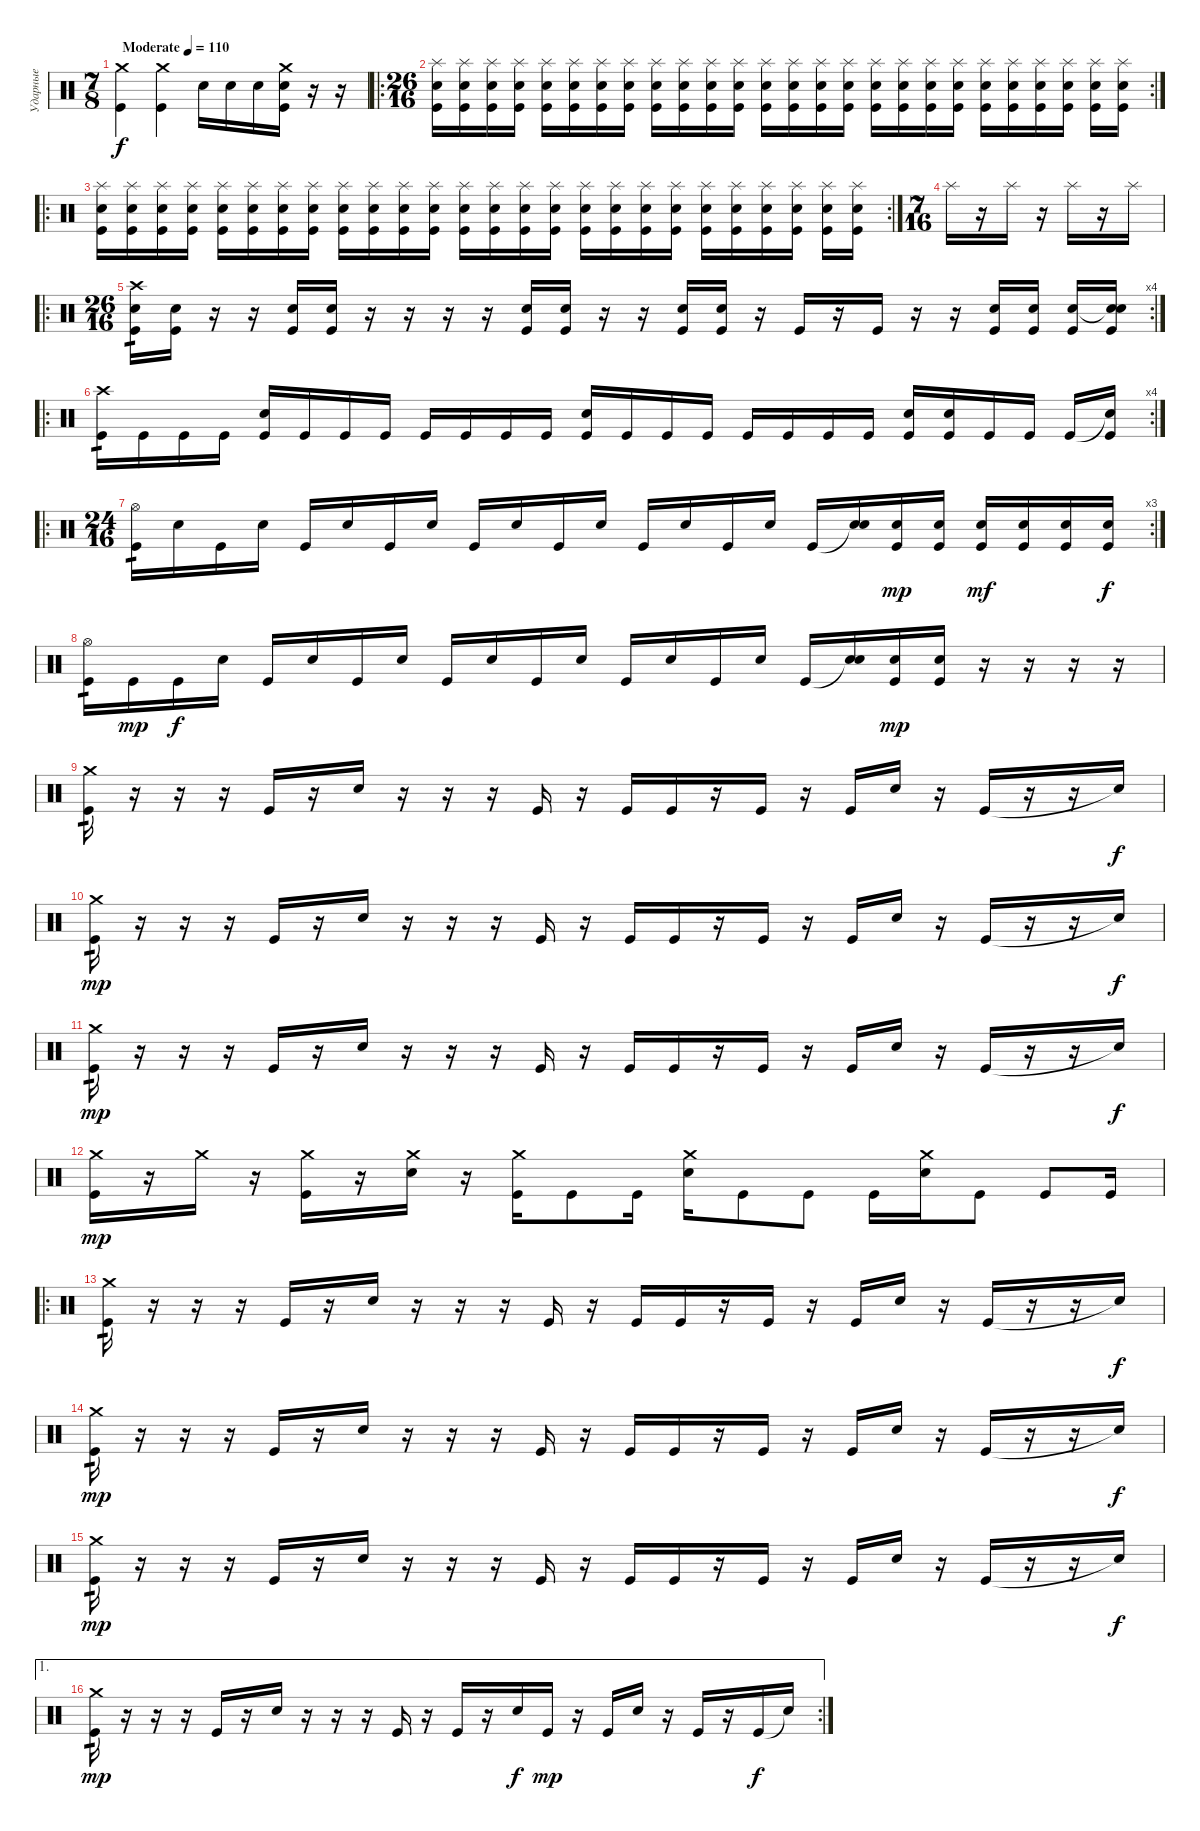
\track ("Ударные" "Ударные") {instrument percussion}
\staff {score}
\articulation defaults
\ts (7 8)
\tempo (110 "Moderate")
\clef neutral
\ks c
("Crash medium (hit)" "Kick (hit)").4{dy f} ("Crash medium (hit)" "Kick (hit)").4 "Electric Snare (hit)".16 "Electric Snare (hit)".16 "Electric Snare (hit)".16 ("Crash medium (hit)" "Electric Snare (hit)" "Kick (hit)").16 r.16 r.16 |
\ro
\rc 2
\ts (26 16)
("Splash (hit)" "Electric Snare (hit)" "Kick (hit)").16 ("Splash (hit)" "Electric Snare (hit)" "Kick (hit)").16 ("Splash (hit)" "Electric Snare (hit)" "Kick (hit)").16 ("Splash (hit)" "Electric Snare (hit)" "Kick (hit)").16 ("Splash (hit)" "Electric Snare (hit)" "Kick (hit)").16 ("Splash (hit)" "Electric Snare (hit)" "Kick (hit)").16 ("Splash (hit)" "Electric Snare (hit)" "Kick (hit)").16 ("Splash (hit)" "Electric Snare (hit)" "Kick (hit)").16 ("Splash (hit)" "Electric Snare (hit)" "Kick (hit)").16 ("Splash (hit)" "Electric Snare (hit)" "Kick (hit)").16 ("Splash (hit)" "Electric Snare (hit)" "Kick (hit)").16 ("Splash (hit)" "Electric Snare (hit)" "Kick (hit)").16 ("Splash (hit)" "Electric Snare (hit)" "Kick (hit)").16 ("Splash (hit)" "Electric Snare (hit)" "Kick (hit)").16 ("Splash (hit)" "Electric Snare (hit)" "Kick (hit)").16 ("Splash (hit)" "Electric Snare (hit)" "Kick (hit)").16 ("Splash (hit)" "Electric Snare (hit)" "Kick (hit)").16 ("Splash (hit)" "Electric Snare (hit)" "Kick (hit)").16 ("Splash (hit)" "Electric Snare (hit)" "Kick (hit)").16 ("Splash (hit)" "Electric Snare (hit)" "Kick (hit)").16 ("Splash (hit)" "Electric Snare (hit)" "Kick (hit)").16 ("Splash (hit)" "Electric Snare (hit)" "Kick (hit)").16 ("Splash (hit)" "Electric Snare (hit)" "Kick (hit)").16 ("Splash (hit)" "Electric Snare (hit)" "Kick (hit)").16 ("Splash (hit)" "Electric Snare (hit)" "Kick (hit)").16 ("Splash (hit)" "Electric Snare (hit)" "Kick (hit)").16 |
\ro
\rc 2
("Splash (hit)" "Electric Snare (hit)" "Kick (hit)").16 ("Splash (hit)" "Electric Snare (hit)" "Kick (hit)").16 ("Splash (hit)" "Electric Snare (hit)" "Kick (hit)").16 ("Splash (hit)" "Electric Snare (hit)" "Kick (hit)").16 ("Splash (hit)" "Electric Snare (hit)" "Kick (hit)").16 ("Splash (hit)" "Electric Snare (hit)" "Kick (hit)").16 ("Splash (hit)" "Electric Snare (hit)" "Kick (hit)").16 ("Splash (hit)" "Electric Snare (hit)" "Kick (hit)").16 ("Splash (hit)" "Electric Snare (hit)" "Kick (hit)").16 ("Splash (hit)" "Electric Snare (hit)" "Kick (hit)").16 ("Splash (hit)" "Electric Snare (hit)" "Kick (hit)").16 ("Splash (hit)" "Electric Snare (hit)" "Kick (hit)").16 ("Splash (hit)" "Electric Snare (hit)" "Kick (hit)").16 ("Splash (hit)" "Electric Snare (hit)" "Kick (hit)").16 ("Splash (hit)" "Electric Snare (hit)" "Kick (hit)").16 ("Splash (hit)" "Electric Snare (hit)" "Kick (hit)").16 ("Splash (hit)" "Electric Snare (hit)" "Kick (hit)").16 ("Splash (hit)" "Electric Snare (hit)" "Kick (hit)").16 ("Splash (hit)" "Electric Snare (hit)" "Kick (hit)").16 ("Splash (hit)" "Electric Snare (hit)" "Kick (hit)").16 ("Splash (hit)" "Electric Snare (hit)" "Kick (hit)").16 ("Splash (hit)" "Electric Snare (hit)" "Kick (hit)").16 ("Splash (hit)" "Electric Snare (hit)" "Kick (hit)").16 ("Splash (hit)" "Electric Snare (hit)" "Kick (hit)").16 ("Splash (hit)" "Electric Snare (hit)" "Kick (hit)").16 ("Splash (hit)" "Electric Snare (hit)" "Kick (hit)").16 |
\ts (7 16)
"Splash (hit)".16 r.16 "Splash (hit)".16 r.16 "Splash (hit)".16 r.16 "Splash (hit)".16 |
\ro
\rc 4
\ts (26 16)
("Crash high (hit)" "Electric Snare (hit)" "Kick (hit)").16{tp 1} ("Electric Snare (hit)" "Kick (hit)").16 r.16 r.16 ("Electric Snare (hit)" "Kick (hit)").16 ("Electric Snare (hit)" "Kick (hit)").16 r.16 r.16 r.16 r.16 ("Electric Snare (hit)" "Kick (hit)").16 ("Electric Snare (hit)" "Kick (hit)").16 r.16 r.16 ("Electric Snare (hit)" "Kick (hit)").16 ("Electric Snare (hit)" "Kick (hit)").16 r.16 "Kick (hit)".16 r.16 "Kick (hit)".16 r.16 r.16 ("Electric Snare (hit)" "Kick (hit)").16 ("Electric Snare (hit)" "Kick (hit)").16 ("Electric Snare (hit)" "Kick (hit)").16 ("Snare (hit)"{t} "Electric Snare (hit)" "Kick (hit)").16 |
\ro
\rc 4
("Crash high (hit)" "Kick (hit)").16{tp 1} "Kick (hit)".16 "Kick (hit)".16 "Kick (hit)".16 ("Electric Snare (hit)" "Kick (hit)").16 "Kick (hit)".16 "Kick (hit)".16 "Kick (hit)".16 "Kick (hit)".16 "Kick (hit)".16 "Kick (hit)".16 "Kick (hit)".16 ("Electric Snare (hit)" "Kick (hit)").16 "Kick (hit)".16 "Kick (hit)".16 "Kick (hit)".16 "Kick (hit)".16 "Kick (hit)".16 "Kick (hit)".16 "Kick (hit)".16 ("Electric Snare (hit)" "Kick (hit)").16 ("Electric Snare (hit)" "Kick (hit)").16 "Kick (hit)".16 "Kick (hit)".16 "Kick (hit)".16 ("Snare (hit)"{t} "Kick (hit)").16 |
\ro
\rc 3
\ts (24 16)
("Hi-Hat (open)" "Kick (hit)").16{tp 1} "Electric Snare (hit)".16 "Kick (hit)".16 "Electric Snare (hit)".16 "Kick (hit)".16 "Electric Snare (hit)".16 "Kick (hit)".16 "Electric Snare (hit)".16 "Kick (hit)".16 "Electric Snare (hit)".16 "Kick (hit)".16 "Electric Snare (hit)".16 "Kick (hit)".16 "Electric Snare (hit)".16 "Kick (hit)".16 "Electric Snare (hit)".16 "Kick (hit)".16 ("Snare (hit)"{t} "Electric Snare (hit)").16 ("Electric Snare (hit)" "Kick (hit)").16{dy mp} ("Electric Snare (hit)" "Kick (hit)").16 ("Electric Snare (hit)" "Kick (hit)").16{dy mf} ("Electric Snare (hit)" "Kick (hit)").16 ("Electric Snare (hit)" "Kick (hit)").16 ("Electric Snare (hit)" "Kick (hit)").16{dy f} |
("Hi-Hat (open)" "Kick (hit)").16{tp 1} "Kick (hit)".16{dy mp} "Kick (hit)".16{dy f} "Electric Snare (hit)".16 "Kick (hit)".16 "Electric Snare (hit)".16 "Kick (hit)".16 "Electric Snare (hit)".16 "Kick (hit)".16 "Electric Snare (hit)".16 "Kick (hit)".16 "Electric Snare (hit)".16 "Kick (hit)".16 "Electric Snare (hit)".16 "Kick (hit)".16 "Electric Snare (hit)".16 "Kick (hit)".16 ("Snare (hit)"{t} "Electric Snare (hit)").16 ("Electric Snare (hit)" "Kick (hit)").16{dy mp} ("Electric Snare (hit)" "Kick (hit)").16 r.16 r.16 r.16 r.16 |
("Crash medium (hit)" "Kick (hit)").16{tp 1} r.16 r.16 r.16 "Kick (hit)".16 r.16 "Electric Snare (hit)".16 r.16 r.16 r.16 "Kick (hit)".16 r.16 "Kick (hit)".16 "Kick (hit)".16 r.16 "Kick (hit)".16 r.16 "Kick (hit)".16 "Electric Snare (hit)".16 r.16 "Kick (hit)".16 r.16 r.16 "Snare (hit)"{t}.16{dy f} |
("Crash medium (hit)" "Kick (hit)").16{tp 1 dy mp} r.16 r.16 r.16 "Kick (hit)".16 r.16 "Electric Snare (hit)".16 r.16 r.16 r.16 "Kick (hit)".16 r.16 "Kick (hit)".16 "Kick (hit)".16 r.16 "Kick (hit)".16 r.16 "Kick (hit)".16 "Electric Snare (hit)".16 r.16 "Kick (hit)".16 r.16 r.16 "Snare (hit)"{t}.16{dy f} |
("Crash medium (hit)" "Kick (hit)").16{tp 1 dy mp} r.16 r.16 r.16 "Kick (hit)".16 r.16 "Electric Snare (hit)".16 r.16 r.16 r.16 "Kick (hit)".16 r.16 "Kick (hit)".16 "Kick (hit)".16 r.16 "Kick (hit)".16 r.16 "Kick (hit)".16 "Electric Snare (hit)".16 r.16 "Kick (hit)".16 r.16 r.16 "Snare (hit)"{t}.16{dy f} |
("Crash medium (hit)" "Kick (hit)").16{dy mp} r.16 "Crash medium (hit)".16 r.16 ("Crash medium (hit)" "Kick (hit)").16 r.16 ("Crash medium (hit)" "Electric Snare (hit)").16 r.16 ("Crash medium (hit)" "Kick (hit)").16 "Kick (hit)".8 "Kick (hit)".16 ("Crash medium (hit)" "Electric Snare (hit)").16 "Kick (hit)".8 "Kick (hit)".8 "Kick (hit)".16 ("Crash medium (hit)" "Electric Snare (hit)").16 "Kick (hit)".8 "Kick (hit)".8 "Kick (hit)".16 |
\ro
("Crash medium (hit)" "Kick (hit)").16{tp 1} r.16 r.16 r.16 "Kick (hit)".16 r.16 "Electric Snare (hit)".16 r.16 r.16 r.16 "Kick (hit)".16 r.16 "Kick (hit)".16 "Kick (hit)".16 r.16 "Kick (hit)".16 r.16 "Kick (hit)".16 "Electric Snare (hit)".16 r.16 "Kick (hit)".16 r.16 r.16 "Snare (hit)"{t}.16{dy f} |
("Crash medium (hit)" "Kick (hit)").16{tp 1 dy mp} r.16 r.16 r.16 "Kick (hit)".16 r.16 "Electric Snare (hit)".16 r.16 r.16 r.16 "Kick (hit)".16 r.16 "Kick (hit)".16 "Kick (hit)".16 r.16 "Kick (hit)".16 r.16 "Kick (hit)".16 "Electric Snare (hit)".16 r.16 "Kick (hit)".16 r.16 r.16 "Snare (hit)"{t}.16{dy f} |
("Crash medium (hit)" "Kick (hit)").16{tp 1 dy mp} r.16 r.16 r.16 "Kick (hit)".16 r.16 "Electric Snare (hit)".16 r.16 r.16 r.16 "Kick (hit)".16 r.16 "Kick (hit)".16 "Kick (hit)".16 r.16 "Kick (hit)".16 r.16 "Kick (hit)".16 "Electric Snare (hit)".16 r.16 "Kick (hit)".16 r.16 r.16 "Snare (hit)"{t}.16{dy f} |
\ae 1
\rc 2
("Crash medium (hit)" "Kick (hit)").16{tp 1 dy mp} r.16 r.16 r.16 "Kick (hit)".16 r.16 "Electric Snare (hit)".16 r.16 r.16 r.16 "Kick (hit)".16 r.16 "Kick (hit)".16 r.16 "Electric Snare (hit)".16{dy f} "Kick (hit)".16{dy mp} r.16 "Kick (hit)".16 "Electric Snare (hit)".16 r.16 "Kick (hit)".16 r.16 "Kick (hit)".16{dy f} "Snare (hit)"{t}.16
